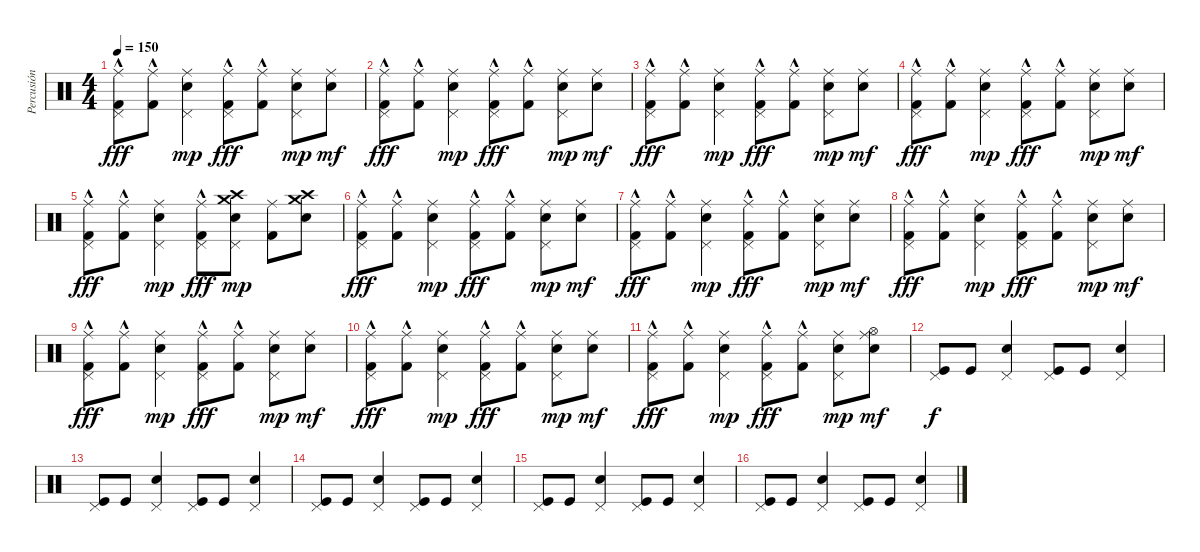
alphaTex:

\track ("Percusión" "Percusión") {instrument percussion}
\staff {score}
\articulation defaults
\ts (4 4)
\tempo 150
\clef neutral
\ks c
("Ride (middle)" "Pedal Hi-Hat (hit)" "Kick (hit) 2"{hac}).8{dy fff} ("Ride (middle)" "Kick (hit) 2"{hac}).8 ("Ride (middle)" "Pedal Hi-Hat (hit)" "Electric Snare (hit)").4{dy mp} ("Ride (middle)" "Pedal Hi-Hat (hit)" "Kick (hit) 2"{hac}).8{dy fff} ("Ride (middle)" "Kick (hit) 2"{hac}).8 ("Ride (middle)" "Pedal Hi-Hat (hit)" "Electric Snare (hit)").8{dy mp} ("Ride (middle)" "Electric Snare (hit)").8{dy mf} |
("Ride (middle)" "Pedal Hi-Hat (hit)" "Kick (hit) 2"{hac}).8{dy fff} ("Ride (middle)" "Kick (hit) 2"{hac}).8 ("Ride (middle)" "Pedal Hi-Hat (hit)" "Electric Snare (hit)").4{dy mp} ("Ride (middle)" "Pedal Hi-Hat (hit)" "Kick (hit) 2"{hac}).8{dy fff} ("Ride (middle)" "Kick (hit) 2"{hac}).8 ("Ride (middle)" "Pedal Hi-Hat (hit)" "Electric Snare (hit)").8{dy mp} ("Ride (middle)" "Electric Snare (hit)").8{dy mf} |
("Ride (middle)" "Pedal Hi-Hat (hit)" "Kick (hit) 2"{hac}).8{dy fff} ("Ride (middle)" "Kick (hit) 2"{hac}).8 ("Ride (middle)" "Pedal Hi-Hat (hit)" "Electric Snare (hit)").4{dy mp} ("Ride (middle)" "Pedal Hi-Hat (hit)" "Kick (hit) 2"{hac}).8{dy fff} ("Ride (middle)" "Kick (hit) 2"{hac}).8 ("Ride (middle)" "Pedal Hi-Hat (hit)" "Electric Snare (hit)").8{dy mp} ("Ride (middle)" "Electric Snare (hit)").8{dy mf} |
("Ride (middle)" "Pedal Hi-Hat (hit)" "Kick (hit) 2"{hac}).8{dy fff} ("Ride (middle)" "Kick (hit) 2"{hac}).8 ("Ride (middle)" "Pedal Hi-Hat (hit)" "Electric Snare (hit)").4{dy mp} ("Ride (middle)" "Pedal Hi-Hat (hit)" "Kick (hit) 2"{hac}).8{dy fff} ("Ride (middle)" "Kick (hit) 2"{hac}).8 ("Ride (middle)" "Pedal Hi-Hat (hit)" "Electric Snare (hit)").8{dy mp} ("Ride (middle)" "Electric Snare (hit)").8{dy mf} |
("Ride (middle)" "Pedal Hi-Hat (hit)" "Kick (hit) 2"{hac}).8{dy fff} ("Ride (middle)" "Kick (hit) 2"{hac}).8 ("Ride (middle)" "Pedal Hi-Hat (hit)" "Electric Snare (hit)").4{dy mp} ("Ride (middle)" "Pedal Hi-Hat (hit)" "Kick (hit) 2"{hac}).8{dy fff} ("Crash high (hit)" "Pedal Hi-Hat (hit)" "Electric Snare (hit)" "Crash medium (hit)").8{dy mp} ("Ride (middle)" "Kick (hit) 2").8 ("Crash medium (hit)" "Electric Snare (hit)" "Crash high (hit)").8 |
("Ride (middle)" "Pedal Hi-Hat (hit)" "Kick (hit) 2"{hac}).8{dy fff} ("Ride (middle)" "Kick (hit) 2"{hac}).8 ("Ride (middle)" "Pedal Hi-Hat (hit)" "Electric Snare (hit)").4{dy mp} ("Ride (middle)" "Pedal Hi-Hat (hit)" "Kick (hit) 2"{hac}).8{dy fff} ("Ride (middle)" "Kick (hit) 2"{hac}).8 ("Ride (middle)" "Pedal Hi-Hat (hit)" "Electric Snare (hit)").8{dy mp} ("Ride (middle)" "Electric Snare (hit)").8{dy mf} |
("Ride (middle)" "Pedal Hi-Hat (hit)" "Kick (hit) 2"{hac}).8{dy fff} ("Ride (middle)" "Kick (hit) 2"{hac}).8 ("Ride (middle)" "Pedal Hi-Hat (hit)" "Electric Snare (hit)").4{dy mp} ("Ride (middle)" "Pedal Hi-Hat (hit)" "Kick (hit) 2"{hac}).8{dy fff} ("Ride (middle)" "Kick (hit) 2"{hac}).8 ("Ride (middle)" "Pedal Hi-Hat (hit)" "Electric Snare (hit)").8{dy mp} ("Ride (middle)" "Electric Snare (hit)").8{dy mf} |
("Ride (middle)" "Pedal Hi-Hat (hit)" "Kick (hit) 2"{hac}).8{dy fff} ("Ride (middle)" "Kick (hit) 2"{hac}).8 ("Ride (middle)" "Pedal Hi-Hat (hit)" "Electric Snare (hit)").4{dy mp} ("Ride (middle)" "Pedal Hi-Hat (hit)" "Kick (hit) 2"{hac}).8{dy fff} ("Ride (middle)" "Kick (hit) 2"{hac}).8 ("Ride (middle)" "Pedal Hi-Hat (hit)" "Electric Snare (hit)").8{dy mp} ("Ride (middle)" "Electric Snare (hit)").8{dy mf} |
("Ride (middle)" "Pedal Hi-Hat (hit)" "Kick (hit) 2"{hac}).8{dy fff} ("Ride (middle)" "Kick (hit) 2"{hac}).8 ("Ride (middle)" "Pedal Hi-Hat (hit)" "Electric Snare (hit)").4{dy mp} ("Ride (middle)" "Pedal Hi-Hat (hit)" "Kick (hit) 2"{hac}).8{dy fff} ("Ride (middle)" "Kick (hit) 2"{hac}).8 ("Ride (middle)" "Pedal Hi-Hat (hit)" "Electric Snare (hit)").8{dy mp} ("Ride (middle)" "Electric Snare (hit)").8{dy mf} |
("Ride (middle)" "Pedal Hi-Hat (hit)" "Kick (hit) 2"{hac}).8{dy fff} ("Ride (middle)" "Kick (hit) 2"{hac}).8 ("Ride (middle)" "Pedal Hi-Hat (hit)" "Electric Snare (hit)").4{dy mp} ("Ride (middle)" "Pedal Hi-Hat (hit)" "Kick (hit) 2"{hac}).8{dy fff} ("Ride (middle)" "Kick (hit) 2"{hac}).8 ("Ride (middle)" "Pedal Hi-Hat (hit)" "Electric Snare (hit)").8{dy mp} ("Ride (middle)" "Electric Snare (hit)").8{dy mf} |
("Ride (middle)" "Pedal Hi-Hat (hit)" "Kick (hit) 2"{hac}).8{dy fff} ("Ride (middle)" "Kick (hit) 2"{hac}).8 ("Ride (middle)" "Pedal Hi-Hat (hit)" "Electric Snare (hit)").4{dy mp} ("Ride (middle)" "Pedal Hi-Hat (hit)" "Kick (hit) 2"{hac}).8{dy fff} ("Ride (middle)" "Kick (hit) 2"{hac}).8 ("Ride (middle)" "Pedal Hi-Hat (hit)" "Electric Snare (hit)").8{dy mp} ("Ride (middle)" "Hi-Hat (open)" "Electric Snare (hit)").8{dy mf} |
("Pedal Hi-Hat (hit)" "Kick (hit)").8{dy f} "Kick (hit)".8 ("Pedal Hi-Hat (hit)" "Snare (hit) 2").4 ("Pedal Hi-Hat (hit)" "Kick (hit)").8 "Kick (hit)".8 ("Pedal Hi-Hat (hit)" "Snare (hit) 2").4 |
("Pedal Hi-Hat (hit)" "Kick (hit)").8 "Kick (hit)".8 ("Pedal Hi-Hat (hit)" "Snare (hit) 2").4 ("Pedal Hi-Hat (hit)" "Kick (hit)").8 "Kick (hit)".8 ("Pedal Hi-Hat (hit)" "Snare (hit) 2").4 |
("Pedal Hi-Hat (hit)" "Kick (hit)").8 "Kick (hit)".8 ("Pedal Hi-Hat (hit)" "Snare (hit) 2").4 ("Pedal Hi-Hat (hit)" "Kick (hit)").8 "Kick (hit)".8 ("Pedal Hi-Hat (hit)" "Snare (hit) 2").4 |
("Pedal Hi-Hat (hit)" "Kick (hit)").8 "Kick (hit)".8 ("Pedal Hi-Hat (hit)" "Snare (hit) 2").4 ("Pedal Hi-Hat (hit)" "Kick (hit)").8 "Kick (hit)".8 ("Pedal Hi-Hat (hit)" "Snare (hit) 2").4 |
("Pedal Hi-Hat (hit)" "Kick (hit)").8 "Kick (hit)".8 ("Pedal Hi-Hat (hit)" "Snare (hit) 2").4 ("Pedal Hi-Hat (hit)" "Kick (hit)").8 "Kick (hit)".8 ("Pedal Hi-Hat (hit)" "Snare (hit) 2").4
